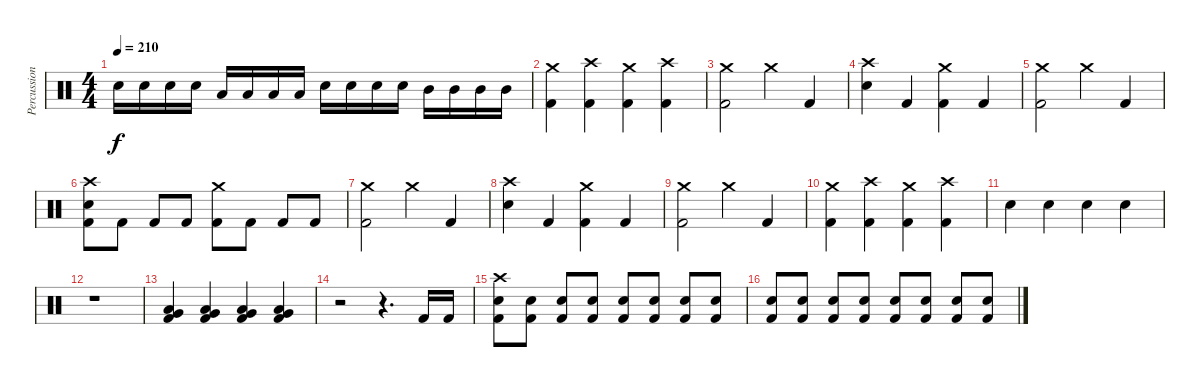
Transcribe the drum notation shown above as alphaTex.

\track ("Percussion" "Percussion") {instrument percussion}
\staff {score}
\articulation defaults
\ts (4 4)
\tempo 210
\clef neutral
\ks c "Electric Snare (hit)".16{dy f} "Electric Snare (hit)".16 "Electric Snare (hit)".16 "Electric Snare (hit)".16 "Low Tom (hit)".16 "Low Tom (hit)".16 "Low Tom (hit)".16 "Low Tom (hit)".16 "Electric Snare (hit)".16 "Electric Snare (hit)".16 "Electric Snare (hit)".16 "Electric Snare (hit)".16 "Mid Tom (hit)".16 "Mid Tom (hit)".16 "Mid Tom (hit)".16 "Mid Tom (hit)".16
|
("Crash medium (hit)" "Kick (hit) 2").4 ("Crash high (hit)" "Kick (hit) 2").4 ("Crash medium (hit)" "Kick (hit) 2").4 ("Crash high (hit)" "Kick (hit) 2").4 |
("Crash medium (hit)" "Kick (hit) 2").2 "Crash medium (hit)".4 "Kick (hit) 2".4 |
("Crash high (hit)" "Electric Snare (hit)").4 "Kick (hit) 2".4 ("Crash medium (hit)" "Kick (hit) 2").4 "Kick (hit) 2".4 |
("Crash medium (hit)" "Kick (hit) 2").2 "Crash medium (hit)".4 "Kick (hit) 2".4 |
("Crash high (hit)" "Electric Snare (hit)" "Kick (hit) 2").8 "Kick (hit) 2".8 "Kick (hit) 2".8 "Kick (hit) 2".8 ("Crash medium (hit)" "Kick (hit) 2").8 "Kick (hit) 2".8 "Kick (hit) 2".8 "Kick (hit) 2".8 |
("Crash medium (hit)" "Kick (hit) 2").2 "Crash medium (hit)".4 "Kick (hit) 2".4 |
("Crash high (hit)" "Electric Snare (hit)").4 "Kick (hit) 2".4 ("Crash medium (hit)" "Kick (hit) 2").4 "Kick (hit) 2".4 |
("Crash medium (hit)" "Kick (hit) 2").2 "Crash medium (hit)".4 "Kick (hit) 2".4 |
("Crash medium (hit)" "Kick (hit) 2").4 ("Crash high (hit)" "Kick (hit) 2").4 ("Crash medium (hit)" "Kick (hit) 2").4 ("Crash high (hit)" "Kick (hit) 2").4 |
"Electric Snare (hit)".4 "Electric Snare (hit)".4 "Electric Snare (hit)".4 "Electric Snare (hit)".4 |
r.1 |
("Low Tom (hit)" "Very Low Tom (hit)" "Kick (hit) 2").4 ("Low Tom (hit)" "Very Low Tom (hit)" "Kick (hit) 2").4 ("Low Tom (hit)" "Very Low Tom (hit)" "Kick (hit) 2").4 ("Low Tom (hit)" "Very Low Tom (hit)" "Kick (hit) 2").4 |
r.2 r.4{d} "Kick (hit) 2".16 "Kick (hit) 2".16 |
("Crash high (hit)" "Electric Snare (hit)" "Kick (hit) 2").8 ("Electric Snare (hit)" "Kick (hit) 2").8 ("Electric Snare (hit)" "Kick (hit) 2").8 ("Electric Snare (hit)" "Kick (hit) 2").8 ("Electric Snare (hit)" "Kick (hit) 2").8 ("Electric Snare (hit)" "Kick (hit) 2").8 ("Electric Snare (hit)" "Kick (hit) 2").8 ("Electric Snare (hit)" "Kick (hit) 2").8 |
("Electric Snare (hit)" "Kick (hit) 2").8 ("Electric Snare (hit)" "Kick (hit) 2").8 ("Electric Snare (hit)" "Kick (hit) 2").8 ("Electric Snare (hit)" "Kick (hit) 2").8 ("Electric Snare (hit)" "Kick (hit) 2").8 ("Electric Snare (hit)" "Kick (hit) 2").8 ("Electric Snare (hit)" "Kick (hit) 2").8 ("Electric Snare (hit)" "Kick (hit) 2").8
